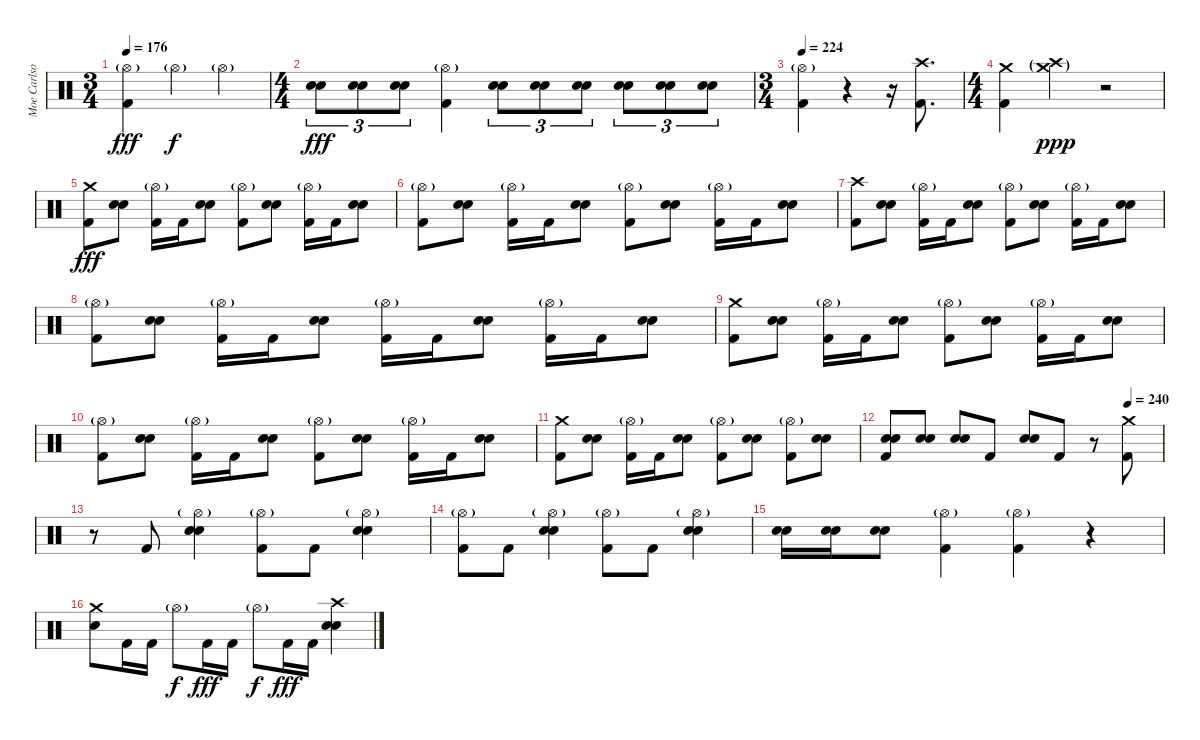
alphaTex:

\track ("Moe Carlson" "Moe Carlso") {instrument percussion}
\staff {score}
\articulation defaults
\ts (3 4)
\tempo 176
\clef neutral
\ks c
("Hi-Hat (open)"{g} "Kick (hit) 2").4{dy fff} "Hi-Hat (open)"{g}.4{dy f} "Hi-Hat (open)"{g}.4 |
\ts (4 4)
("Snare (hit) 2" "Electric Snare (hit)").8{tu (3 2) dy fff} ("Snare (hit) 2" "Electric Snare (hit)").8{tu (3 2)} ("Snare (hit) 2" "Electric Snare (hit)").8{tu (3 2)} ("Hi-Hat (open)"{g} "Kick (hit) 2").4 ("Snare (hit) 2" "Electric Snare (hit)").8{tu (3 2)} ("Snare (hit) 2" "Electric Snare (hit)").8{tu (3 2)} ("Snare (hit) 2" "Electric Snare (hit)").8{tu (3 2)} ("Snare (hit) 2" "Electric Snare (hit)").8{tu (3 2)} ("Snare (hit) 2" "Electric Snare (hit)").8{tu (3 2)} ("Snare (hit) 2" "Electric Snare (hit)").8{tu (3 2)} |
\ts (3 4)
\tempo 224
("Hi-Hat (open)"{g} "Kick (hit) 2").4 r.4 r.16 ("Crash high (hit)" "Kick (hit) 2").8{d} |
\ts (4 4)
("Crash medium (hit)" "Kick (hit) 2").4 ("Crash medium (hit)"{g} "Crash high (hit)"{g}).4{dy ppp} r.2 |
("Crash medium (hit)" "Kick (hit) 2").8{dy fff} ("Snare (hit) 2" "Electric Snare (hit)").8 ("Hi-Hat (open)"{g} "Kick (hit) 2").16 "Kick (hit) 2".16 ("Snare (hit) 2" "Electric Snare (hit)").8 ("Hi-Hat (open)"{g} "Kick (hit) 2").8 ("Snare (hit) 2" "Electric Snare (hit)").8 ("Hi-Hat (open)"{g} "Kick (hit) 2").16 "Kick (hit) 2".16 ("Snare (hit) 2" "Electric Snare (hit)").8 |
("Hi-Hat (open)"{g} "Kick (hit) 2").8 ("Snare (hit) 2" "Electric Snare (hit)").8 ("Hi-Hat (open)"{g} "Kick (hit) 2").16 "Kick (hit) 2".16 ("Snare (hit) 2" "Electric Snare (hit)").8 ("Hi-Hat (open)"{g} "Kick (hit) 2").8 ("Snare (hit) 2" "Electric Snare (hit)").8 ("Hi-Hat (open)"{g} "Kick (hit) 2").16 "Kick (hit) 2".16 ("Snare (hit) 2" "Electric Snare (hit)").8 |
("Crash high (hit)" "Kick (hit) 2").8 ("Snare (hit) 2" "Electric Snare (hit)").8 ("Hi-Hat (open)"{g} "Kick (hit) 2").16 "Kick (hit) 2".16 ("Snare (hit) 2" "Electric Snare (hit)").8 ("Hi-Hat (open)"{g} "Kick (hit) 2").8 ("Snare (hit) 2" "Electric Snare (hit)").8 ("Hi-Hat (open)"{g} "Kick (hit) 2").16 "Kick (hit) 2".16 ("Snare (hit) 2" "Electric Snare (hit)").8 |
("Hi-Hat (open)"{g} "Kick (hit) 2").8 ("Snare (hit) 2" "Electric Snare (hit)").8 ("Hi-Hat (open)"{g} "Kick (hit) 2").16 "Kick (hit) 2".16 ("Snare (hit) 2" "Electric Snare (hit)").8 ("Hi-Hat (open)"{g} "Kick (hit) 2").16 "Kick (hit) 2".16 ("Snare (hit) 2" "Electric Snare (hit)").8 ("Hi-Hat (open)"{g} "Kick (hit) 2").16 "Kick (hit) 2".16 ("Snare (hit) 2" "Electric Snare (hit)").8 |
("Crash medium (hit)" "Kick (hit) 2").8 ("Snare (hit) 2" "Electric Snare (hit)").8 ("Hi-Hat (open)"{g} "Kick (hit) 2").16 "Kick (hit) 2".16 ("Snare (hit) 2" "Electric Snare (hit)").8 ("Hi-Hat (open)"{g} "Kick (hit) 2").8 ("Snare (hit) 2" "Electric Snare (hit)").8 ("Hi-Hat (open)"{g} "Kick (hit) 2").16 "Kick (hit) 2".16 ("Snare (hit) 2" "Electric Snare (hit)").8 |
("Hi-Hat (open)"{g} "Kick (hit) 2").8 ("Snare (hit) 2" "Electric Snare (hit)").8 ("Hi-Hat (open)"{g} "Kick (hit) 2").16 "Kick (hit) 2".16 ("Snare (hit) 2" "Electric Snare (hit)").8 ("Hi-Hat (open)"{g} "Kick (hit) 2").8 ("Snare (hit) 2" "Electric Snare (hit)").8 ("Hi-Hat (open)"{g} "Kick (hit) 2").16 "Kick (hit) 2".16 ("Snare (hit) 2" "Electric Snare (hit)").8 |
("Crash medium (hit)" "Kick (hit) 2").8 ("Snare (hit) 2" "Electric Snare (hit)").8 ("Hi-Hat (open)"{g} "Kick (hit) 2").16 "Kick (hit) 2".16 ("Snare (hit) 2" "Electric Snare (hit)").8 ("Hi-Hat (open)"{g} "Kick (hit) 2").8 ("Snare (hit) 2" "Electric Snare (hit)").8 ("Hi-Hat (open)"{g} "Kick (hit) 2").8 ("Snare (hit) 2" "Electric Snare (hit)").8 |
\tempo (240 0.875)
("Snare (hit) 2" "Electric Snare (hit)" "Kick (hit) 2").8 ("Snare (hit) 2" "Electric Snare (hit)").8 ("Snare (hit) 2" "Electric Snare (hit)").8 "Kick (hit) 2".8 ("Snare (hit) 2" "Electric Snare (hit)").8 "Kick (hit) 2".8 r.8 ("Crash medium (hit)" "Kick (hit) 2").8 |
r.8 "Kick (hit) 2".8 ("Hi-Hat (open)"{g} "Snare (hit) 2" "Electric Snare (hit)").4 ("Hi-Hat (open)"{g} "Kick (hit) 2").8 "Kick (hit) 2".8 ("Hi-Hat (open)"{g} "Snare (hit) 2" "Electric Snare (hit)").4 |
("Hi-Hat (open)"{g} "Kick (hit) 2").8 "Kick (hit) 2".8 ("Hi-Hat (open)"{g} "Snare (hit) 2" "Electric Snare (hit)").4 ("Hi-Hat (open)"{g} "Kick (hit) 2").8 "Kick (hit) 2".8 ("Hi-Hat (open)"{g} "Snare (hit) 2" "Electric Snare (hit)").4 |
("Snare (hit) 2" "Electric Snare (hit)").16 ("Snare (hit) 2" "Electric Snare (hit)").16 ("Snare (hit) 2" "Electric Snare (hit)").8 ("Hi-Hat (open)"{g} "Kick (hit) 2").4 ("Hi-Hat (open)"{g} "Kick (hit) 2").4 r.4 |
("Crash medium (hit)" "Electric Snare (hit)").8 "Kick (hit) 2".16 "Kick (hit) 2".16 "Hi-Hat (open)"{g}.8{dy f} "Kick (hit) 2".16{dy fff} "Kick (hit) 2".16 "Hi-Hat (open)"{g}.8{dy f} "Kick (hit) 2".16{dy fff} "Kick (hit) 2".16 ("Crash high (hit)" "Snare (hit) 2" "Electric Snare (hit)").4
